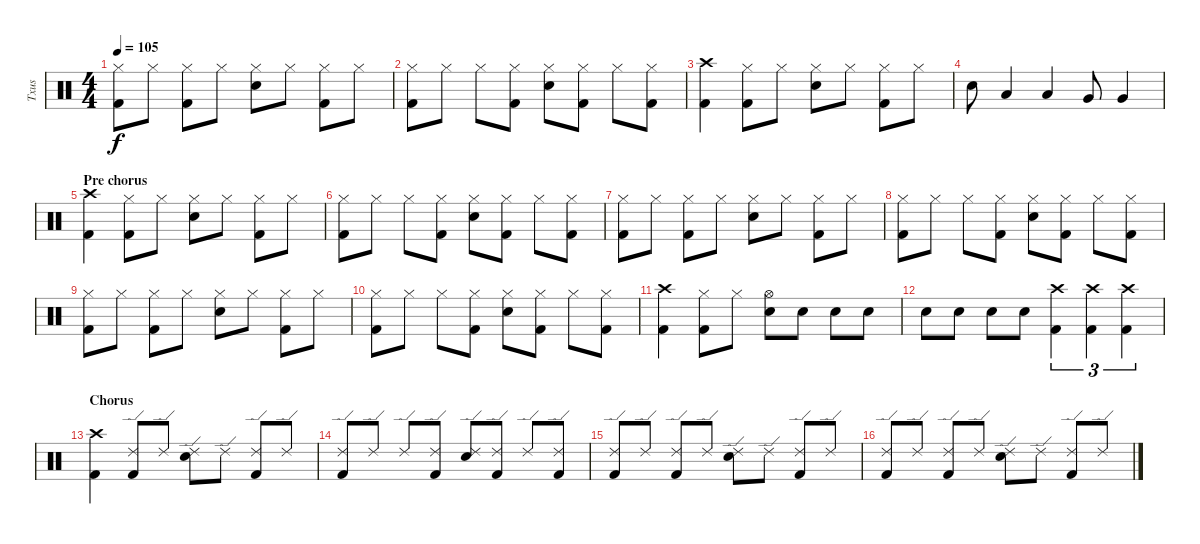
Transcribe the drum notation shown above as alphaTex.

\track ("Txus" "Txus") {instrument percussion}
\staff {score}
\articulation defaults
\ts (4 4)
\tempo 105
\clef neutral
\ks c
("Hi-Hat (closed)" "Kick (hit) 2").8{dy f} "Hi-Hat (closed)".8 ("Hi-Hat (closed)" "Kick (hit) 2").8 "Hi-Hat (closed)".8 ("Hi-Hat (closed)" "Electric Snare (hit)").8 "Hi-Hat (closed)".8 ("Hi-Hat (closed)" "Kick (hit) 2").8 "Hi-Hat (closed)".8 |
("Hi-Hat (closed)" "Kick (hit) 2").8 "Hi-Hat (closed)".8 "Hi-Hat (closed)".8 ("Hi-Hat (closed)" "Kick (hit) 2").8 ("Hi-Hat (closed)" "Electric Snare (hit)").8 ("Hi-Hat (closed)" "Kick (hit) 2").8 "Hi-Hat (closed)".8 ("Hi-Hat (closed)" "Kick (hit) 2").8 |
("Crash high (hit)" "Kick (hit) 2").4 ("Hi-Hat (closed)" "Kick (hit) 2").8 "Hi-Hat (closed)".8 ("Hi-Hat (closed)" "Electric Snare (hit)").8 "Hi-Hat (closed)".8 ("Hi-Hat (closed)" "Kick (hit) 2").8 "Hi-Hat (closed)".8 |
"Electric Snare (hit)".8 "Low Tom (hit)".4 "Low Tom (hit)".4 "Very Low Tom (hit)".8 "Very Low Tom (hit)".4 |
\section ("" "Pre chorus")
("Crash high (hit)" "Kick (hit) 2").4 ("Hi-Hat (closed)" "Kick (hit) 2").8 "Hi-Hat (closed)".8 ("Hi-Hat (closed)" "Electric Snare (hit)").8 "Hi-Hat (closed)".8 ("Hi-Hat (closed)" "Kick (hit) 2").8 "Hi-Hat (closed)".8 |
("Hi-Hat (closed)" "Kick (hit) 2").8 "Hi-Hat (closed)".8 "Hi-Hat (closed)".8 ("Hi-Hat (closed)" "Kick (hit) 2").8 ("Hi-Hat (closed)" "Electric Snare (hit)").8 ("Hi-Hat (closed)" "Kick (hit) 2").8 "Hi-Hat (closed)".8 ("Hi-Hat (closed)" "Kick (hit) 2").8 |
("Hi-Hat (closed)" "Kick (hit) 2").8 "Hi-Hat (closed)".8 ("Hi-Hat (closed)" "Kick (hit) 2").8 "Hi-Hat (closed)".8 ("Hi-Hat (closed)" "Electric Snare (hit)").8 "Hi-Hat (closed)".8 ("Hi-Hat (closed)" "Kick (hit) 2").8 "Hi-Hat (closed)".8 |
("Hi-Hat (closed)" "Kick (hit) 2").8 "Hi-Hat (closed)".8 "Hi-Hat (closed)".8 ("Hi-Hat (closed)" "Kick (hit) 2").8 ("Hi-Hat (closed)" "Electric Snare (hit)").8 ("Hi-Hat (closed)" "Kick (hit) 2").8 "Hi-Hat (closed)".8 ("Hi-Hat (closed)" "Kick (hit) 2").8 |
("Hi-Hat (closed)" "Kick (hit) 2").8 "Hi-Hat (closed)".8 ("Hi-Hat (closed)" "Kick (hit) 2").8 "Hi-Hat (closed)".8 ("Hi-Hat (closed)" "Electric Snare (hit)").8 "Hi-Hat (closed)".8 ("Hi-Hat (closed)" "Kick (hit) 2").8 "Hi-Hat (closed)".8 |
("Hi-Hat (closed)" "Kick (hit) 2").8 "Hi-Hat (closed)".8 "Hi-Hat (closed)".8 ("Hi-Hat (closed)" "Kick (hit) 2").8 ("Hi-Hat (closed)" "Electric Snare (hit)").8 ("Hi-Hat (closed)" "Kick (hit) 2").8 "Hi-Hat (closed)".8 ("Hi-Hat (closed)" "Kick (hit) 2").8 |
("Crash high (hit)" "Kick (hit) 2").4 ("Hi-Hat (closed)" "Kick (hit) 2").8 "Hi-Hat (closed)".8 ("Hi-Hat (open)" "Electric Snare (hit)").8 "Electric Snare (hit)".8 "Electric Snare (hit)".8 "Electric Snare (hit)".8 |
"Electric Snare (hit)".8 "Electric Snare (hit)".8 "Electric Snare (hit)".8 "Electric Snare (hit)".8 ("Crash high (hit)" "Kick (hit) 2").4{tu (3 2)} ("Crash high (hit)" "Kick (hit) 2").4{tu (3 2)} ("Crash high (hit)" "Kick (hit) 2").4{tu (3 2)} |
\section ("" "Chorus")
("Crash high (hit)" "Kick (hit) 2").4 ("Ride (edge) 2" "Kick (hit) 2").8 "Ride (edge) 2".8 ("Ride (edge) 2" "Electric Snare (hit)").8 "Ride (edge) 2".8 ("Ride (edge) 2" "Kick (hit) 2").8 "Ride (edge) 2".8 |
("Ride (edge) 2" "Kick (hit) 2").8 "Ride (edge) 2".8 "Ride (edge) 2".8 ("Ride (edge) 2" "Kick (hit) 2").8 ("Ride (edge) 2" "Electric Snare (hit)").8 ("Ride (edge) 2" "Kick (hit) 2").8 "Ride (edge) 2".8 ("Ride (edge) 2" "Kick (hit) 2").8 |
("Ride (edge) 2" "Kick (hit) 2").8 "Ride (edge) 2".8 ("Ride (edge) 2" "Kick (hit) 2").8 "Ride (edge) 2".8 ("Ride (edge) 2" "Electric Snare (hit)").8 "Ride (edge) 2".8 ("Ride (edge) 2" "Kick (hit) 2").8 "Ride (edge) 2".8 |
("Ride (edge) 2" "Kick (hit) 2").8 "Ride (edge) 2".8 ("Ride (edge) 2" "Kick (hit) 2").8 "Ride (edge) 2".8 ("Ride (edge) 2" "Electric Snare (hit)").8 "Ride (edge) 2".8 ("Ride (edge) 2" "Kick (hit) 2").8 "Ride (edge) 2".8
